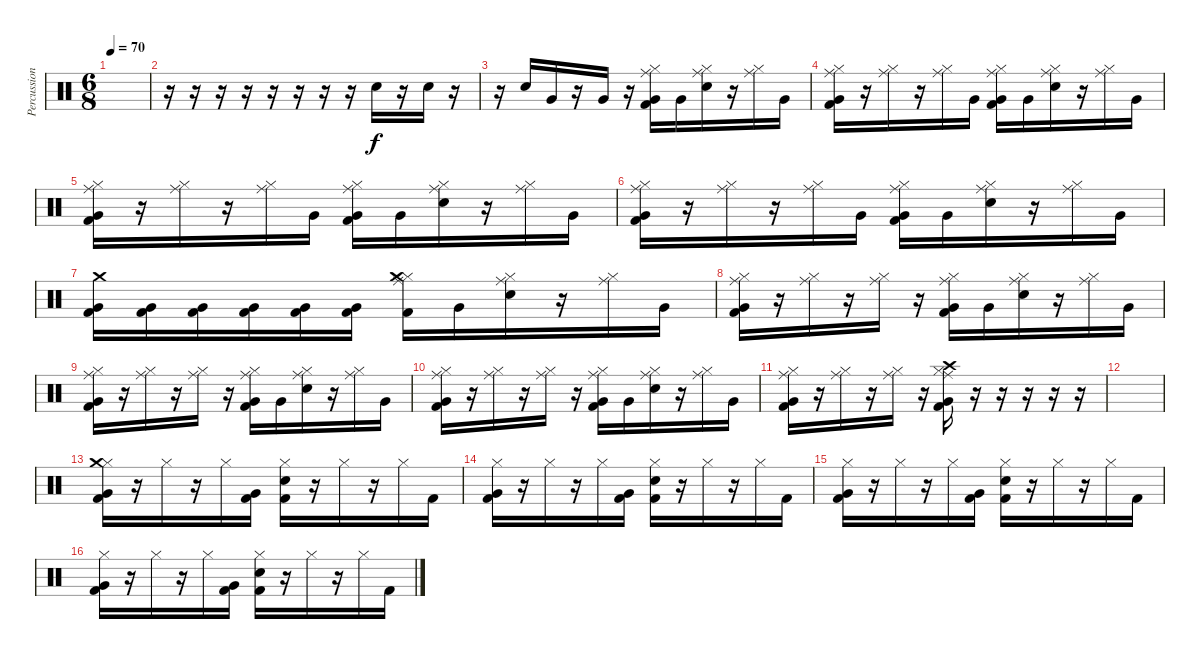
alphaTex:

\track ("Percussion" "Percussion") {instrument percussion}
\staff {score}
\articulation defaults
\ts (6 8)
\tempo 70
\clef neutral
\ks c
|
r.16 r.16 r.16 r.16 r.16 r.16 r.16 r.16 "Electric Snare (hit)".16 r.16 "Electric Snare (hit)".16 r.16 |
r.16 "Electric Snare (hit)".16 "Very Low Tom (hit)".16 r.16 "Very Low Tom (hit)".16 r.16 ("Ride (middle)" "Very Low Tom (hit)" "Hi-Hat (closed)" "Kick (hit) 2").16 "Very Low Tom (hit)".16 ("Ride (middle)" "Electric Snare (hit)" "Hi-Hat (closed)").16 r.16 ("Ride (middle)" "Hi-Hat (closed)").16 "Very Low Tom (hit)".16 |
("Ride (middle)" "Very Low Tom (hit)" "Hi-Hat (closed)" "Kick (hit) 2").16 r.16 ("Ride (middle)" "Hi-Hat (closed)").16 r.16 ("Ride (middle)" "Hi-Hat (closed)").16 "Very Low Tom (hit)".16 ("Ride (middle)" "Very Low Tom (hit)" "Hi-Hat (closed)" "Kick (hit) 2").16 "Very Low Tom (hit)".16 ("Ride (middle)" "Electric Snare (hit)" "Hi-Hat (closed)").16 r.16 ("Ride (middle)" "Hi-Hat (closed)").16 "Very Low Tom (hit)".16 |
("Ride (middle)" "Very Low Tom (hit)" "Hi-Hat (closed)" "Kick (hit) 2").16 r.16 ("Ride (middle)" "Hi-Hat (closed)").16 r.16 ("Ride (middle)" "Hi-Hat (closed)").16 "Very Low Tom (hit)".16 ("Ride (middle)" "Very Low Tom (hit)" "Hi-Hat (closed)" "Kick (hit) 2").16 "Very Low Tom (hit)".16 ("Ride (middle)" "Electric Snare (hit)" "Hi-Hat (closed)").16 r.16 ("Ride (middle)" "Hi-Hat (closed)").16 "Very Low Tom (hit)".16 |
("Ride (middle)" "Very Low Tom (hit)" "Hi-Hat (closed)" "Kick (hit) 2").16 r.16 ("Ride (middle)" "Hi-Hat (closed)").16 r.16 ("Ride (middle)" "Hi-Hat (closed)").16 "Very Low Tom (hit)".16 ("Ride (middle)" "Very Low Tom (hit)" "Hi-Hat (closed)" "Kick (hit) 2").16 "Very Low Tom (hit)".16 ("Ride (middle)" "Electric Snare (hit)" "Hi-Hat (closed)").16 r.16 ("Ride (middle)" "Hi-Hat (closed)").16 "Very Low Tom (hit)".16 |
("Kick (hit) 2" "Very Low Tom (hit)" "Crash medium (hit)").16 ("Kick (hit) 2" "Very Low Tom (hit)").16 ("Kick (hit) 2" "Very Low Tom (hit)").16 ("Kick (hit) 2" "Very Low Tom (hit)").16 ("Kick (hit) 2" "Very Low Tom (hit)").16 ("Kick (hit) 2" "Very Low Tom (hit)").16 ("Ride (middle)" "Hi-Hat (closed)" "Kick (hit) 2" "Crash medium (hit)").16 "Very Low Tom (hit)".16 ("Ride (middle)" "Electric Snare (hit)" "Hi-Hat (closed)").16 r.16 ("Ride (middle)" "Hi-Hat (closed)").16 "Very Low Tom (hit)".16 |
("Ride (middle)" "Very Low Tom (hit)" "Hi-Hat (closed)" "Kick (hit) 2").16 r.16 ("Ride (middle)" "Hi-Hat (closed)").16 r.16 ("Ride (middle)" "Hi-Hat (closed)").16 r.16 ("Ride (middle)" "Very Low Tom (hit)" "Hi-Hat (closed)" "Kick (hit) 2").16 "Very Low Tom (hit)".16 ("Ride (middle)" "Electric Snare (hit)" "Hi-Hat (closed)").16 r.16 ("Ride (middle)" "Hi-Hat (closed)").16 "Very Low Tom (hit)".16 |
("Ride (middle)" "Very Low Tom (hit)" "Hi-Hat (closed)" "Kick (hit) 2").16 r.16 ("Ride (middle)" "Hi-Hat (closed)").16 r.16 ("Ride (middle)" "Hi-Hat (closed)").16 r.16 ("Ride (middle)" "Very Low Tom (hit)" "Hi-Hat (closed)" "Kick (hit) 2").16 "Very Low Tom (hit)".16 ("Ride (middle)" "Electric Snare (hit)" "Hi-Hat (closed)").16 r.16 ("Ride (middle)" "Hi-Hat (closed)").16 "Very Low Tom (hit)".16 |
("Ride (middle)" "Very Low Tom (hit)" "Hi-Hat (closed)" "Kick (hit) 2").16 r.16 ("Ride (middle)" "Hi-Hat (closed)").16 r.16 ("Ride (middle)" "Hi-Hat (closed)").16 r.16 ("Ride (middle)" "Very Low Tom (hit)" "Hi-Hat (closed)" "Kick (hit) 2").16 "Very Low Tom (hit)".16 ("Ride (middle)" "Electric Snare (hit)" "Hi-Hat (closed)").16 r.16 ("Ride (middle)" "Hi-Hat (closed)").16 "Very Low Tom (hit)".16 |
("Ride (middle)" "Very Low Tom (hit)" "Hi-Hat (closed)" "Kick (hit) 2").16 r.16 ("Ride (middle)" "Hi-Hat (closed)").16 r.16 ("Ride (middle)" "Hi-Hat (closed)").16 r.16 ("Ride (middle)" "Hi-Hat (closed)" "Crash high (hit)" "Kick (hit) 2" "Very Low Tom (hit)").16 r.16 r.16 r.16 r.16 r.16 |
|
("Very Low Tom (hit)" "Hi-Hat (closed)" "Crash medium (hit)" "Kick (hit) 2").16 r.16 "Hi-Hat (closed)".16 r.16 "Hi-Hat (closed)".16 ("Kick (hit) 2" "Very Low Tom (hit)").16 ("Hi-Hat (closed)" "Electric Snare (hit)" "Kick (hit) 2").16 r.16 "Hi-Hat (closed)".16 r.16 "Hi-Hat (closed)".16 "Kick (hit) 2".16 |
("Very Low Tom (hit)" "Hi-Hat (closed)" "Kick (hit) 2").16 r.16 "Hi-Hat (closed)".16 r.16 "Hi-Hat (closed)".16 ("Kick (hit) 2" "Very Low Tom (hit)").16 ("Hi-Hat (closed)" "Electric Snare (hit)" "Kick (hit) 2").16 r.16 "Hi-Hat (closed)".16 r.16 "Hi-Hat (closed)".16 "Kick (hit) 2".16 |
("Very Low Tom (hit)" "Hi-Hat (closed)" "Kick (hit) 2").16 r.16 "Hi-Hat (closed)".16 r.16 "Hi-Hat (closed)".16 ("Kick (hit) 2" "Very Low Tom (hit)").16 ("Hi-Hat (closed)" "Electric Snare (hit)" "Kick (hit) 2").16 r.16 "Hi-Hat (closed)".16 r.16 "Hi-Hat (closed)".16 "Kick (hit) 2".16 |
("Very Low Tom (hit)" "Hi-Hat (closed)" "Kick (hit) 2").16 r.16 "Hi-Hat (closed)".16 r.16 "Hi-Hat (closed)".16 ("Kick (hit) 2" "Very Low Tom (hit)").16 ("Hi-Hat (closed)" "Electric Snare (hit)" "Kick (hit) 2").16 r.16 "Hi-Hat (closed)".16 r.16 "Hi-Hat (closed)".16 "Kick (hit) 2".16
